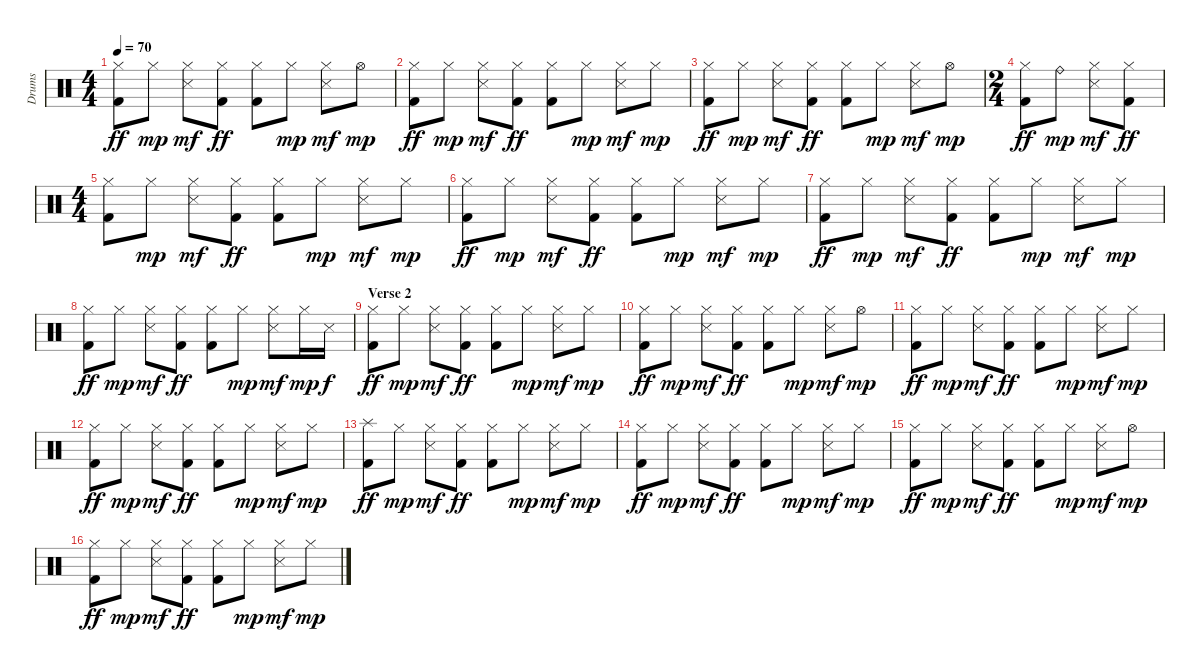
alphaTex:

\track ("Drums" "Drums") {instrument percussion}
\staff {score}
\articulation defaults
\ts (4 4)
\tempo 70
\clef neutral
\ks c
("Hi-Hat (closed)" "Kick (hit) 2").8{dy ff} "Hi-Hat (closed)".8{dy mp} ("Hi-Hat (closed)" "Snare (side stick) 3").8{dy mf} ("Hi-Hat (closed)" "Kick (hit) 2").8{dy ff} ("Hi-Hat (closed)" "Kick (hit) 2").8 "Hi-Hat (closed)".8{dy mp} ("Hi-Hat (closed)" "Snare (side stick) 3").8{dy mf} "Hi-Hat (open)".8{dy mp} |
("Hi-Hat (closed)" "Kick (hit) 2").8{dy ff} "Hi-Hat (closed)".8{dy mp} ("Hi-Hat (closed)" "Snare (side stick) 3").8{dy mf} ("Hi-Hat (closed)" "Kick (hit) 2").8{dy ff} ("Hi-Hat (closed)" "Kick (hit) 2").8 "Hi-Hat (closed)".8{dy mp} ("Hi-Hat (closed)" "Snare (side stick) 3").8{dy mf} "Hi-Hat (closed)".8{dy mp} |
("Hi-Hat (closed)" "Kick (hit) 2").8{dy ff} "Hi-Hat (closed)".8{dy mp} ("Hi-Hat (closed)" "Snare (side stick) 3").8{dy mf} ("Hi-Hat (closed)" "Kick (hit) 2").8{dy ff} ("Hi-Hat (closed)" "Kick (hit) 2").8 "Hi-Hat (closed)".8{dy mp} ("Hi-Hat (closed)" "Snare (side stick) 3").8{dy mf} "Hi-Hat (open)".8{dy mp} |
\ts (2 4)
("Hi-Hat (closed)" "Kick (hit) 2").8{dy ff} "Ride (bell)".8{dy mp} ("Hi-Hat (closed)" "Snare (side stick) 3").8{dy mf} ("Hi-Hat (closed)" "Kick (hit) 2").8{dy ff} |
\ts (4 4)
("Hi-Hat (closed)" "Kick (hit) 2").8 "Hi-Hat (closed)".8{dy mp} ("Hi-Hat (closed)" "Snare (side stick) 3").8{dy mf} ("Hi-Hat (closed)" "Kick (hit) 2").8{dy ff} ("Hi-Hat (closed)" "Kick (hit) 2").8 "Hi-Hat (closed)".8{dy mp} ("Hi-Hat (closed)" "Snare (side stick) 3").8{dy mf} "Hi-Hat (closed)".8{dy mp} |
("Hi-Hat (closed)" "Kick (hit) 2").8{dy ff} "Hi-Hat (closed)".8{dy mp} ("Hi-Hat (closed)" "Snare (side stick) 3").8{dy mf} ("Hi-Hat (closed)" "Kick (hit) 2").8{dy ff} ("Hi-Hat (closed)" "Kick (hit) 2").8 "Hi-Hat (closed)".8{dy mp} ("Hi-Hat (closed)" "Snare (side stick) 3").8{dy mf} "Hi-Hat (closed)".8{dy mp} |
("Hi-Hat (closed)" "Kick (hit) 2").8{dy ff} "Hi-Hat (closed)".8{dy mp} ("Hi-Hat (closed)" "Snare (side stick) 3").8{dy mf} ("Hi-Hat (closed)" "Kick (hit) 2").8{dy ff} ("Hi-Hat (closed)" "Kick (hit) 2").8 "Hi-Hat (closed)".8{dy mp} ("Hi-Hat (closed)" "Snare (side stick) 3").8{dy mf} "Hi-Hat (closed)".8{dy mp} |
("Hi-Hat (closed)" "Kick (hit) 2").8{dy ff} "Hi-Hat (closed)".8{dy mp} ("Hi-Hat (closed)" "Snare (side stick) 3").8{dy mf} ("Hi-Hat (closed)" "Kick (hit) 2").8{dy ff} ("Hi-Hat (closed)" "Kick (hit) 2").8 "Hi-Hat (closed)".8{dy mp} ("Hi-Hat (closed)" "Snare (side stick) 3").8{dy mf} "Hi-Hat (closed)".16{dy mp} "Snare (side stick) 3".16{dy f} |
\section ("" "Verse 2")
("Hi-Hat (closed)" "Kick (hit) 2").8{dy ff} "Hi-Hat (closed)".8{dy mp} ("Hi-Hat (closed)" "Snare (side stick) 3").8{dy mf} ("Hi-Hat (closed)" "Kick (hit) 2").8{dy ff} ("Hi-Hat (closed)" "Kick (hit) 2").8 "Hi-Hat (closed)".8{dy mp} ("Hi-Hat (closed)" "Snare (side stick) 3").8{dy mf} "Hi-Hat (closed)".8{dy mp} |
("Hi-Hat (closed)" "Kick (hit) 2").8{dy ff} "Hi-Hat (closed)".8{dy mp} ("Hi-Hat (closed)" "Snare (side stick) 3").8{dy mf} ("Hi-Hat (closed)" "Kick (hit) 2").8{dy ff} ("Hi-Hat (closed)" "Kick (hit) 2").8 "Hi-Hat (closed)".8{dy mp} ("Hi-Hat (closed)" "Snare (side stick) 3").8{dy mf} "Hi-Hat (open)".8{dy mp} |
("Hi-Hat (closed)" "Kick (hit) 2").8{dy ff} "Hi-Hat (closed)".8{dy mp} ("Hi-Hat (closed)" "Snare (side stick) 3").8{dy mf} ("Hi-Hat (closed)" "Kick (hit) 2").8{dy ff} ("Hi-Hat (closed)" "Kick (hit) 2").8 "Hi-Hat (closed)".8{dy mp} ("Hi-Hat (closed)" "Snare (side stick) 3").8{dy mf} "Hi-Hat (closed)".8{dy mp} |
("Hi-Hat (closed)" "Kick (hit) 2").8{dy ff} "Hi-Hat (closed)".8{dy mp} ("Hi-Hat (closed)" "Snare (side stick) 3").8{dy mf} ("Hi-Hat (closed)" "Kick (hit) 2").8{dy ff} ("Hi-Hat (closed)" "Kick (hit) 2").8 "Hi-Hat (closed)".8{dy mp} ("Hi-Hat (closed)" "Snare (side stick) 3").8{dy mf} "Hi-Hat (closed)".8{dy mp} |
("Splash (hit)" "Kick (hit) 2").8{dy ff} "Hi-Hat (closed)".8{dy mp} ("Hi-Hat (closed)" "Snare (side stick) 3").8{dy mf} ("Hi-Hat (closed)" "Kick (hit) 2").8{dy ff} ("Hi-Hat (closed)" "Kick (hit) 2").8 "Hi-Hat (closed)".8{dy mp} ("Hi-Hat (closed)" "Snare (side stick) 3").8{dy mf} "Hi-Hat (closed)".8{dy mp} |
("Hi-Hat (closed)" "Kick (hit) 2").8{dy ff} "Hi-Hat (closed)".8{dy mp} ("Hi-Hat (closed)" "Snare (side stick) 3").8{dy mf} ("Hi-Hat (closed)" "Kick (hit) 2").8{dy ff} ("Hi-Hat (closed)" "Kick (hit) 2").8 "Hi-Hat (closed)".8{dy mp} ("Hi-Hat (closed)" "Snare (side stick) 3").8{dy mf} "Hi-Hat (closed)".8{dy mp} |
("Hi-Hat (closed)" "Kick (hit) 2").8{dy ff} "Hi-Hat (closed)".8{dy mp} ("Hi-Hat (closed)" "Snare (side stick) 3").8{dy mf} ("Hi-Hat (closed)" "Kick (hit) 2").8{dy ff} ("Hi-Hat (closed)" "Kick (hit) 2").8 "Hi-Hat (closed)".8{dy mp} ("Hi-Hat (closed)" "Snare (side stick) 3").8{dy mf} "Hi-Hat (open)".8{dy mp} |
("Hi-Hat (closed)" "Kick (hit) 2").8{dy ff} "Hi-Hat (closed)".8{dy mp} ("Hi-Hat (closed)" "Snare (side stick) 3").8{dy mf} ("Hi-Hat (closed)" "Kick (hit) 2").8{dy ff} ("Hi-Hat (closed)" "Kick (hit) 2").8 "Hi-Hat (closed)".8{dy mp} ("Hi-Hat (closed)" "Snare (side stick) 3").8{dy mf} "Hi-Hat (closed)".8{dy mp}
